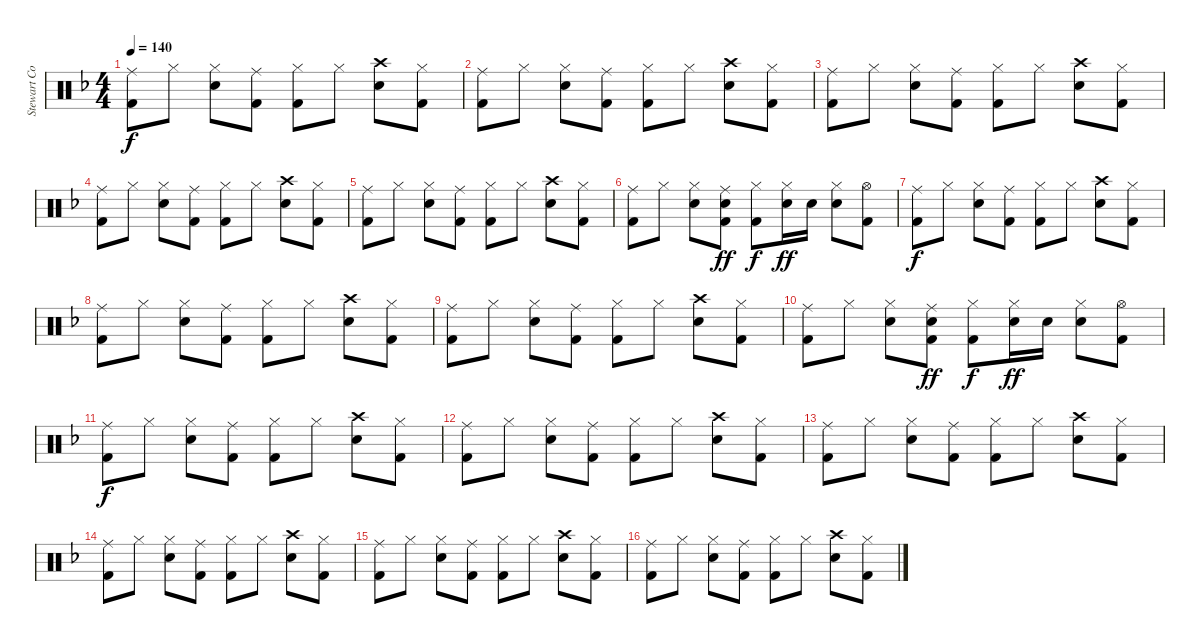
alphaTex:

\track ("Stewart Copeland" "Stewart Co") {instrument percussion}
\staff {score}
\articulation defaults
\ts (4 4)
\tempo 140
\clef neutral
\ks f
("Ride (middle)" "Kick (hit) 2").8{dy f} "Hi-Hat (closed)".8 ("Hi-Hat (closed)" "Snare (hit) 2").8 ("Ride (middle)" "Kick (hit) 2").8 ("Hi-Hat (closed)" "Kick (hit) 2").8 "Hi-Hat (closed)".8 ("Crash high (hit)" "Snare (hit) 2").8 ("Hi-Hat (closed)" "Kick (hit) 2").8 |
("Ride (middle)" "Kick (hit) 2").8 "Hi-Hat (closed)".8 ("Hi-Hat (closed)" "Snare (hit) 2").8 ("Ride (middle)" "Kick (hit) 2").8 ("Hi-Hat (closed)" "Kick (hit) 2").8 "Hi-Hat (closed)".8 ("Crash high (hit)" "Snare (hit) 2").8 ("Hi-Hat (closed)" "Kick (hit) 2").8 |
("Ride (middle)" "Kick (hit) 2").8 "Hi-Hat (closed)".8 ("Hi-Hat (closed)" "Snare (hit) 2").8 ("Ride (middle)" "Kick (hit) 2").8 ("Hi-Hat (closed)" "Kick (hit) 2").8 "Hi-Hat (closed)".8 ("Crash high (hit)" "Snare (hit) 2").8 ("Hi-Hat (closed)" "Kick (hit) 2").8 |
("Ride (middle)" "Kick (hit) 2").8 "Hi-Hat (closed)".8 ("Hi-Hat (closed)" "Snare (hit) 2").8 ("Ride (middle)" "Kick (hit) 2").8 ("Hi-Hat (closed)" "Kick (hit) 2").8 "Hi-Hat (closed)".8 ("Crash high (hit)" "Snare (hit) 2").8 ("Hi-Hat (closed)" "Kick (hit) 2").8 |
("Ride (middle)" "Kick (hit) 2").8 "Hi-Hat (closed)".8 ("Hi-Hat (closed)" "Snare (hit) 2").8 ("Ride (middle)" "Kick (hit) 2").8 ("Hi-Hat (closed)" "Kick (hit) 2").8 "Hi-Hat (closed)".8 ("Crash high (hit)" "Snare (hit) 2").8 ("Hi-Hat (closed)" "Kick (hit) 2").8 |
("Ride (middle)" "Kick (hit) 2").8 "Hi-Hat (closed)".8 ("Hi-Hat (closed)" "Snare (hit) 2").8 ("Ride (middle)" "Snare (hit) 2" "Kick (hit) 2").8{dy ff} ("Hi-Hat (closed)" "Kick (hit) 2").8{dy f} ("Hi-Hat (closed)" "Snare (hit) 2").16{dy ff} "Snare (hit) 2".16 ("Hi-Hat (closed)" "Snare (hit) 2").8 ("Hi-Hat (open)" "Kick (hit) 2").8 |
("Ride (middle)" "Kick (hit) 2").8{dy f} "Hi-Hat (closed)".8 ("Hi-Hat (closed)" "Snare (hit) 2").8 ("Ride (middle)" "Kick (hit) 2").8 ("Hi-Hat (closed)" "Kick (hit) 2").8 "Hi-Hat (closed)".8 ("Crash high (hit)" "Snare (hit) 2").8 ("Hi-Hat (closed)" "Kick (hit) 2").8 |
("Ride (middle)" "Kick (hit) 2").8 "Hi-Hat (closed)".8 ("Hi-Hat (closed)" "Snare (hit) 2").8 ("Ride (middle)" "Kick (hit) 2").8 ("Hi-Hat (closed)" "Kick (hit) 2").8 "Hi-Hat (closed)".8 ("Crash high (hit)" "Snare (hit) 2").8 ("Hi-Hat (closed)" "Kick (hit) 2").8 |
("Ride (middle)" "Kick (hit) 2").8 "Hi-Hat (closed)".8 ("Hi-Hat (closed)" "Snare (hit) 2").8 ("Ride (middle)" "Kick (hit) 2").8 ("Hi-Hat (closed)" "Kick (hit) 2").8 "Hi-Hat (closed)".8 ("Crash high (hit)" "Snare (hit) 2").8 ("Hi-Hat (closed)" "Kick (hit) 2").8 |
("Ride (middle)" "Kick (hit) 2").8 "Hi-Hat (closed)".8 ("Hi-Hat (closed)" "Snare (hit) 2").8 ("Ride (middle)" "Snare (hit) 2" "Kick (hit) 2").8{dy ff} ("Hi-Hat (closed)" "Kick (hit) 2").8{dy f} ("Hi-Hat (closed)" "Snare (hit) 2").16{dy ff} "Snare (hit) 2".16 ("Hi-Hat (closed)" "Snare (hit) 2").8 ("Hi-Hat (open)" "Kick (hit) 2").8 |
("Ride (middle)" "Kick (hit) 2").8{dy f} "Hi-Hat (closed)".8 ("Hi-Hat (closed)" "Snare (hit) 2").8 ("Ride (middle)" "Kick (hit) 2").8 ("Hi-Hat (closed)" "Kick (hit) 2").8 "Hi-Hat (closed)".8 ("Crash high (hit)" "Snare (hit) 2").8 ("Hi-Hat (closed)" "Kick (hit) 2").8 |
("Ride (middle)" "Kick (hit) 2").8 "Hi-Hat (closed)".8 ("Hi-Hat (closed)" "Snare (hit) 2").8 ("Ride (middle)" "Kick (hit) 2").8 ("Hi-Hat (closed)" "Kick (hit) 2").8 "Hi-Hat (closed)".8 ("Crash high (hit)" "Snare (hit) 2").8 ("Hi-Hat (closed)" "Kick (hit) 2").8 |
("Ride (middle)" "Kick (hit) 2").8 "Hi-Hat (closed)".8 ("Hi-Hat (closed)" "Snare (hit) 2").8 ("Ride (middle)" "Kick (hit) 2").8 ("Hi-Hat (closed)" "Kick (hit) 2").8 "Hi-Hat (closed)".8 ("Crash high (hit)" "Snare (hit) 2").8 ("Hi-Hat (closed)" "Kick (hit) 2").8 |
("Ride (middle)" "Kick (hit) 2").8 "Hi-Hat (closed)".8 ("Hi-Hat (closed)" "Snare (hit) 2").8 ("Ride (middle)" "Kick (hit) 2").8 ("Hi-Hat (closed)" "Kick (hit) 2").8 "Hi-Hat (closed)".8 ("Crash high (hit)" "Snare (hit) 2").8 ("Hi-Hat (closed)" "Kick (hit) 2").8 |
("Ride (middle)" "Kick (hit) 2").8 "Hi-Hat (closed)".8 ("Hi-Hat (closed)" "Snare (hit) 2").8 ("Ride (middle)" "Kick (hit) 2").8 ("Hi-Hat (closed)" "Kick (hit) 2").8 "Hi-Hat (closed)".8 ("Crash high (hit)" "Snare (hit) 2").8 ("Hi-Hat (closed)" "Kick (hit) 2").8 |
("Ride (middle)" "Kick (hit) 2").8 "Hi-Hat (closed)".8 ("Hi-Hat (closed)" "Snare (hit) 2").8 ("Ride (middle)" "Kick (hit) 2").8 ("Hi-Hat (closed)" "Kick (hit) 2").8 "Hi-Hat (closed)".8 ("Crash high (hit)" "Snare (hit) 2").8 ("Hi-Hat (closed)" "Kick (hit) 2").8
